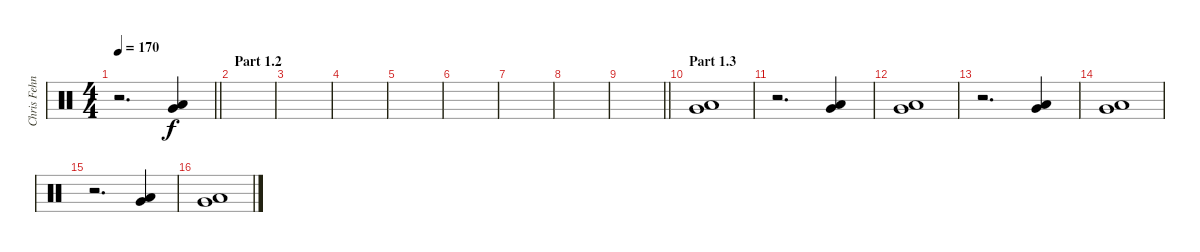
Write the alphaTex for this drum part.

\track ("Chris Fehn" "Chris Fehn") {instrument percussion}
\staff {score}
\articulation defaults
\ts (4 4)
\tempo 170
\clef neutral
\barLineRight lightlight
\ks c
r.2{d dy f} ("Very Low Tom (hit)" "Low Floor Tom (hit)").4 |
\section ("" "Part 1.2")
|
|
|
|
|
|
|
\barLineRight lightlight
|
\section ("" "Part 1.3")
("Very Low Tom (hit)" "Low Floor Tom (hit)").1 |
r.2{d} ("Very Low Tom (hit)" "Low Floor Tom (hit)").4 |
("Very Low Tom (hit)" "Low Floor Tom (hit)").1 |
r.2{d} ("Very Low Tom (hit)" "Low Floor Tom (hit)").4 |
("Very Low Tom (hit)" "Low Floor Tom (hit)").1 |
r.2{d} ("Very Low Tom (hit)" "Low Floor Tom (hit)").4 |
("Very Low Tom (hit)" "Low Floor Tom (hit)").1
